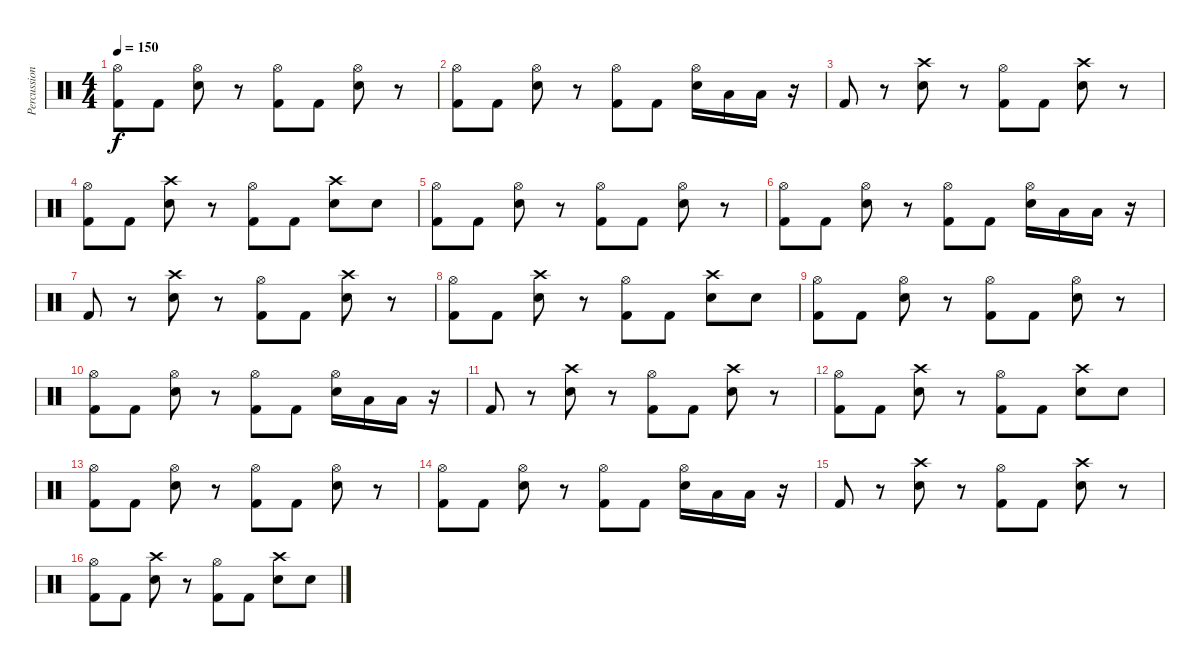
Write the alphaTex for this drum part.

\track ("Percussion" "Percussion") {instrument percussion}
\staff {score}
\articulation defaults
\ts (4 4)
\tempo 150
\clef neutral
\ks c
("Hi-Hat (open)" "Kick (hit) 2").8{dy f} "Kick (hit) 2".8 ("Hi-Hat (open)" "Snare (hit) 2").8 r.8 ("Hi-Hat (open)" "Kick (hit) 2").8 "Kick (hit) 2".8 ("Hi-Hat (open)" "Snare (hit) 2").8 r.8 |
("Hi-Hat (open)" "Kick (hit) 2").8 "Kick (hit) 2".8 ("Hi-Hat (open)" "Snare (hit) 2").8 r.8 ("Hi-Hat (open)" "Kick (hit) 2").8 "Kick (hit) 2".8 ("Hi-Hat (open)" "Snare (hit) 2").16 "Low Tom (hit)".16 "Low Tom (hit)".16 r.16 |
"Kick (hit) 2".8 r.8 ("Crash high (hit)" "Snare (hit) 2").8 r.8 ("Hi-Hat (open)" "Kick (hit) 2").8 "Kick (hit) 2".8 ("Crash high (hit)" "Snare (hit) 2").8 r.8 |
("Hi-Hat (open)" "Kick (hit) 2").8 "Kick (hit) 2".8 ("Crash high (hit)" "Snare (hit) 2").8 r.8 ("Hi-Hat (open)" "Kick (hit) 2").8 "Kick (hit) 2".8 ("Crash high (hit)" "Snare (hit) 2").8 "Snare (hit) 2".8 |
("Hi-Hat (open)" "Kick (hit) 2").8{volume 14} "Kick (hit) 2".8 ("Hi-Hat (open)" "Snare (hit) 2").8 r.8 ("Hi-Hat (open)" "Kick (hit) 2").8 "Kick (hit) 2".8 ("Hi-Hat (open)" "Snare (hit) 2").8 r.8 |
("Hi-Hat (open)" "Kick (hit) 2").8 "Kick (hit) 2".8 ("Hi-Hat (open)" "Snare (hit) 2").8 r.8 ("Hi-Hat (open)" "Kick (hit) 2").8 "Kick (hit) 2".8 ("Hi-Hat (open)" "Snare (hit) 2").16 "Low Tom (hit)".16 "Low Tom (hit)".16 r.16 |
"Kick (hit) 2".8 r.8 ("Crash high (hit)" "Snare (hit) 2").8 r.8 ("Hi-Hat (open)" "Kick (hit) 2").8 "Kick (hit) 2".8 ("Crash high (hit)" "Snare (hit) 2").8 r.8 |
("Hi-Hat (open)" "Kick (hit) 2").8 "Kick (hit) 2".8 ("Crash high (hit)" "Snare (hit) 2").8 r.8 ("Hi-Hat (open)" "Kick (hit) 2").8 "Kick (hit) 2".8 ("Crash high (hit)" "Snare (hit) 2").8 "Snare (hit) 2".8 |
("Hi-Hat (open)" "Kick (hit) 2").8 "Kick (hit) 2".8 ("Hi-Hat (open)" "Snare (hit) 2").8 r.8 ("Hi-Hat (open)" "Kick (hit) 2").8 "Kick (hit) 2".8 ("Hi-Hat (open)" "Snare (hit) 2").8 r.8 |
("Hi-Hat (open)" "Kick (hit) 2").8 "Kick (hit) 2".8 ("Hi-Hat (open)" "Snare (hit) 2").8 r.8 ("Hi-Hat (open)" "Kick (hit) 2").8 "Kick (hit) 2".8 ("Hi-Hat (open)" "Snare (hit) 2").16 "Low Tom (hit)".16 "Low Tom (hit)".16 r.16 |
"Kick (hit) 2".8 r.8 ("Crash high (hit)" "Snare (hit) 2").8 r.8 ("Hi-Hat (open)" "Kick (hit) 2").8 "Kick (hit) 2".8 ("Crash high (hit)" "Snare (hit) 2").8 r.8 |
("Hi-Hat (open)" "Kick (hit) 2").8 "Kick (hit) 2".8 ("Crash high (hit)" "Snare (hit) 2").8 r.8 ("Hi-Hat (open)" "Kick (hit) 2").8 "Kick (hit) 2".8 ("Crash high (hit)" "Snare (hit) 2").8 "Snare (hit) 2".8 |
("Hi-Hat (open)" "Kick (hit) 2").8{volume 14} "Kick (hit) 2".8 ("Hi-Hat (open)" "Snare (hit) 2").8 r.8 ("Hi-Hat (open)" "Kick (hit) 2").8 "Kick (hit) 2".8 ("Hi-Hat (open)" "Snare (hit) 2").8 r.8 |
("Hi-Hat (open)" "Kick (hit) 2").8 "Kick (hit) 2".8 ("Hi-Hat (open)" "Snare (hit) 2").8 r.8 ("Hi-Hat (open)" "Kick (hit) 2").8 "Kick (hit) 2".8 ("Hi-Hat (open)" "Snare (hit) 2").16 "Low Tom (hit)".16 "Low Tom (hit)".16 r.16 |
"Kick (hit) 2".8 r.8 ("Crash high (hit)" "Snare (hit) 2").8 r.8 ("Hi-Hat (open)" "Kick (hit) 2").8 "Kick (hit) 2".8 ("Crash high (hit)" "Snare (hit) 2").8 r.8 |
("Hi-Hat (open)" "Kick (hit) 2").8 "Kick (hit) 2".8 ("Crash high (hit)" "Snare (hit) 2").8 r.8 ("Hi-Hat (open)" "Kick (hit) 2").8 "Kick (hit) 2".8 ("Crash high (hit)" "Snare (hit) 2").8 "Snare (hit) 2".8
